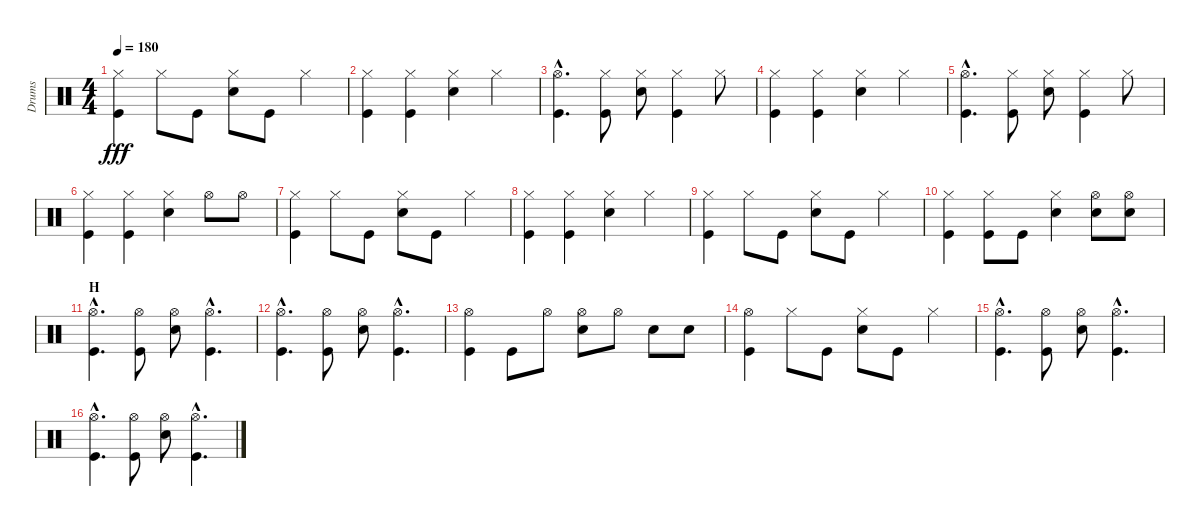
\track ("Drums" "Drums") {instrument percussion}
\staff {score}
\articulation defaults
\ts (4 4)
\tempo 180
\clef neutral
\ks c
("Hi-Hat (closed)" "Kick (hit)").4{dy fff} "Hi-Hat (closed)".8 "Kick (hit)".8 ("Hi-Hat (closed)" "Snare (hit) 2").8 "Kick (hit)".8 "Hi-Hat (closed)".4 |
("Hi-Hat (closed)" "Kick (hit)").4 ("Hi-Hat (closed)" "Kick (hit)").4 ("Hi-Hat (closed)" "Snare (hit) 2").4 "Hi-Hat (closed)".4 |
("Hi-Hat (open)"{hac} "Kick (hit)"{hac}).4{d} ("Hi-Hat (closed)" "Kick (hit)").8 ("Hi-Hat (closed)" "Snare (hit) 2").8 ("Hi-Hat (closed)" "Kick (hit)").4 "Hi-Hat (closed)".8 |
("Hi-Hat (closed)" "Kick (hit)").4 ("Hi-Hat (closed)" "Kick (hit)").4 ("Hi-Hat (closed)" "Snare (hit) 2").4 "Hi-Hat (closed)".4 |
("Hi-Hat (open)"{hac} "Kick (hit)"{hac}).4{d} ("Hi-Hat (closed)" "Kick (hit)").8 ("Hi-Hat (closed)" "Snare (hit) 2").8 ("Hi-Hat (closed)" "Kick (hit)").4 "Hi-Hat (closed)".8 |
("Hi-Hat (closed)" "Kick (hit)").4 ("Hi-Hat (closed)" "Kick (hit)").4 ("Hi-Hat (closed)" "Snare (hit) 2").4 "Hi-Hat (open)".8 "Hi-Hat (open)".8 |
("Hi-Hat (closed)" "Kick (hit)").4 "Hi-Hat (closed)".8 "Kick (hit)".8 ("Hi-Hat (closed)" "Snare (hit) 2").8 "Kick (hit)".8 "Hi-Hat (closed)".4 |
("Hi-Hat (closed)" "Kick (hit)").4 ("Hi-Hat (closed)" "Kick (hit)").4 ("Hi-Hat (closed)" "Snare (hit) 2").4 "Hi-Hat (closed)".4 |
("Hi-Hat (closed)" "Kick (hit)").4 "Hi-Hat (closed)".8 "Kick (hit)".8 ("Hi-Hat (closed)" "Snare (hit) 2").8 "Kick (hit)".8 "Hi-Hat (closed)".4 |
("Hi-Hat (closed)" "Kick (hit)").4 ("Hi-Hat (closed)" "Kick (hit)").8 "Kick (hit)".8 ("Hi-Hat (closed)" "Snare (hit) 2").4 ("Hi-Hat (open)" "Snare (hit) 2").8 ("Hi-Hat (open)" "Snare (hit) 2").8 |
\section ("" "H")
("Hi-Hat (open)"{hac} "Kick (hit)"{hac}).4{d} ("Hi-Hat (open)" "Kick (hit)").8 ("Hi-Hat (open)" "Snare (hit) 2").8 ("Hi-Hat (open)"{hac} "Kick (hit)"{hac}).4{d} |
("Hi-Hat (open)"{hac} "Kick (hit)"{hac}).4{d} ("Hi-Hat (open)" "Kick (hit)").8 ("Hi-Hat (open)" "Snare (hit) 2").8 ("Hi-Hat (open)"{hac} "Kick (hit)"{hac}).4{d} |
("Hi-Hat (open)" "Kick (hit)").4 "Kick (hit)".8 "Hi-Hat (open)".8 ("Hi-Hat (open)" "Snare (hit) 2").8 "Hi-Hat (open)".8 "Snare (hit) 2".8 "Snare (hit) 2".8 |
("Hi-Hat (open)" "Kick (hit)").4 "Hi-Hat (closed)".8 "Kick (hit)".8 ("Hi-Hat (closed)" "Snare (hit) 2").8 "Kick (hit)".8 "Hi-Hat (closed)".4 |
("Hi-Hat (open)"{hac} "Kick (hit)"{hac}).4{d} ("Hi-Hat (open)" "Kick (hit)").8 ("Hi-Hat (open)" "Snare (hit) 2").8 ("Hi-Hat (open)"{hac} "Kick (hit)"{hac}).4{d} |
("Hi-Hat (open)"{hac} "Kick (hit)"{hac}).4{d} ("Hi-Hat (open)" "Kick (hit)").8 ("Hi-Hat (open)" "Snare (hit) 2").8 ("Hi-Hat (open)"{hac} "Kick (hit)"{hac}).4{d}
